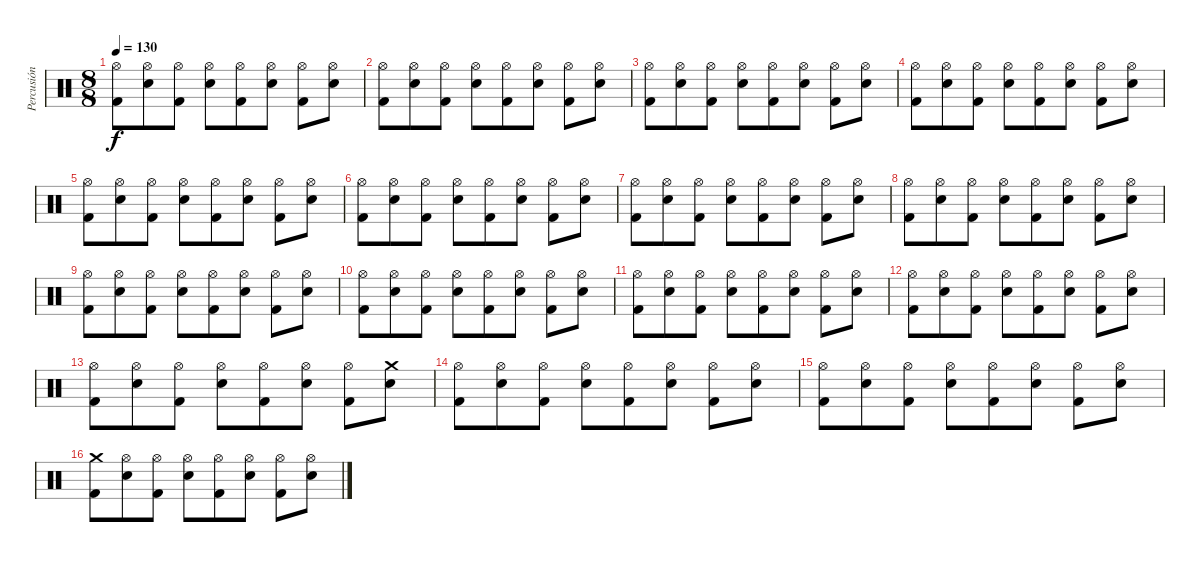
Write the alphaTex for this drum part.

\track ("Percusión" "Percusión") {instrument percussion}
\staff {score}
\articulation defaults
\ts (8 8)
\tempo 130
\clef neutral
\ks c
("Hi-Hat (open)" "Kick (hit) 2").8{dy f} ("Hi-Hat (open)" "Snare (hit) 2").8 ("Hi-Hat (open)" "Kick (hit) 2").8 ("Hi-Hat (open)" "Snare (hit) 2").8 ("Hi-Hat (open)" "Kick (hit) 2").8 ("Hi-Hat (open)" "Snare (hit) 2").8 ("Hi-Hat (open)" "Kick (hit) 2").8 ("Hi-Hat (open)" "Snare (hit) 2").8 |
("Hi-Hat (open)" "Kick (hit) 2").8 ("Hi-Hat (open)" "Snare (hit) 2").8 ("Hi-Hat (open)" "Kick (hit) 2").8 ("Hi-Hat (open)" "Snare (hit) 2").8 ("Hi-Hat (open)" "Kick (hit) 2").8 ("Hi-Hat (open)" "Snare (hit) 2").8 ("Hi-Hat (open)" "Kick (hit) 2").8 ("Hi-Hat (open)" "Snare (hit) 2").8 |
("Hi-Hat (open)" "Kick (hit) 2").8 ("Hi-Hat (open)" "Snare (hit) 2").8 ("Hi-Hat (open)" "Kick (hit) 2").8 ("Hi-Hat (open)" "Snare (hit) 2").8 ("Hi-Hat (open)" "Kick (hit) 2").8 ("Hi-Hat (open)" "Snare (hit) 2").8 ("Hi-Hat (open)" "Kick (hit) 2").8 ("Hi-Hat (open)" "Snare (hit) 2").8 |
("Hi-Hat (open)" "Kick (hit) 2").8 ("Hi-Hat (open)" "Snare (hit) 2").8 ("Hi-Hat (open)" "Kick (hit) 2").8 ("Hi-Hat (open)" "Snare (hit) 2").8 ("Hi-Hat (open)" "Kick (hit) 2").8 ("Hi-Hat (open)" "Snare (hit) 2").8 ("Hi-Hat (open)" "Kick (hit) 2").8 ("Hi-Hat (open)" "Snare (hit) 2").8 |
("Hi-Hat (open)" "Kick (hit) 2").8 ("Hi-Hat (open)" "Snare (hit) 2").8 ("Hi-Hat (open)" "Kick (hit) 2").8 ("Hi-Hat (open)" "Snare (hit) 2").8 ("Hi-Hat (open)" "Kick (hit) 2").8 ("Hi-Hat (open)" "Snare (hit) 2").8 ("Hi-Hat (open)" "Kick (hit) 2").8 ("Hi-Hat (open)" "Snare (hit) 2").8 |
("Hi-Hat (open)" "Kick (hit) 2").8 ("Hi-Hat (open)" "Snare (hit) 2").8 ("Hi-Hat (open)" "Kick (hit) 2").8 ("Hi-Hat (open)" "Snare (hit) 2").8 ("Hi-Hat (open)" "Kick (hit) 2").8 ("Hi-Hat (open)" "Snare (hit) 2").8 ("Hi-Hat (open)" "Kick (hit) 2").8 ("Hi-Hat (open)" "Snare (hit) 2").8 |
("Hi-Hat (open)" "Kick (hit) 2").8 ("Hi-Hat (open)" "Snare (hit) 2").8 ("Hi-Hat (open)" "Kick (hit) 2").8 ("Hi-Hat (open)" "Snare (hit) 2").8 ("Hi-Hat (open)" "Kick (hit) 2").8 ("Hi-Hat (open)" "Snare (hit) 2").8 ("Hi-Hat (open)" "Kick (hit) 2").8 ("Hi-Hat (open)" "Snare (hit) 2").8 |
("Hi-Hat (open)" "Kick (hit) 2").8 ("Hi-Hat (open)" "Snare (hit) 2").8 ("Hi-Hat (open)" "Kick (hit) 2").8 ("Hi-Hat (open)" "Snare (hit) 2").8 ("Hi-Hat (open)" "Kick (hit) 2").8 ("Hi-Hat (open)" "Snare (hit) 2").8 ("Hi-Hat (open)" "Kick (hit) 2").8 ("Hi-Hat (open)" "Snare (hit) 2").8 |
("Hi-Hat (open)" "Kick (hit) 2").8 ("Hi-Hat (open)" "Snare (hit) 2").8 ("Hi-Hat (open)" "Kick (hit) 2").8 ("Hi-Hat (open)" "Snare (hit) 2").8 ("Hi-Hat (open)" "Kick (hit) 2").8 ("Hi-Hat (open)" "Snare (hit) 2").8 ("Hi-Hat (open)" "Kick (hit) 2").8 ("Hi-Hat (open)" "Snare (hit) 2").8 |
("Hi-Hat (open)" "Kick (hit) 2").8 ("Hi-Hat (open)" "Snare (hit) 2").8 ("Hi-Hat (open)" "Kick (hit) 2").8 ("Hi-Hat (open)" "Snare (hit) 2").8 ("Hi-Hat (open)" "Kick (hit) 2").8 ("Hi-Hat (open)" "Snare (hit) 2").8 ("Hi-Hat (open)" "Kick (hit) 2").8 ("Hi-Hat (open)" "Snare (hit) 2").8 |
("Hi-Hat (open)" "Kick (hit) 2").8 ("Hi-Hat (open)" "Snare (hit) 2").8 ("Hi-Hat (open)" "Kick (hit) 2").8 ("Hi-Hat (open)" "Snare (hit) 2").8 ("Hi-Hat (open)" "Kick (hit) 2").8 ("Hi-Hat (open)" "Snare (hit) 2").8 ("Hi-Hat (open)" "Kick (hit) 2").8 ("Hi-Hat (open)" "Snare (hit) 2").8 |
("Hi-Hat (open)" "Kick (hit) 2").8 ("Hi-Hat (open)" "Snare (hit) 2").8 ("Hi-Hat (open)" "Kick (hit) 2").8 ("Hi-Hat (open)" "Snare (hit) 2").8 ("Hi-Hat (open)" "Kick (hit) 2").8 ("Hi-Hat (open)" "Snare (hit) 2").8 ("Hi-Hat (open)" "Kick (hit) 2").8 ("Hi-Hat (open)" "Snare (hit) 2").8 |
("Hi-Hat (open)" "Kick (hit) 2").8 ("Hi-Hat (open)" "Snare (hit) 2").8 ("Hi-Hat (open)" "Kick (hit) 2").8 ("Hi-Hat (open)" "Snare (hit) 2").8 ("Hi-Hat (open)" "Kick (hit) 2").8 ("Hi-Hat (open)" "Snare (hit) 2").8 ("Hi-Hat (open)" "Kick (hit) 2").8 ("Crash medium (hit)" "Snare (hit) 2").8 |
("Hi-Hat (open)" "Kick (hit) 2").8 ("Hi-Hat (open)" "Snare (hit) 2").8 ("Hi-Hat (open)" "Kick (hit) 2").8 ("Hi-Hat (open)" "Snare (hit) 2").8 ("Hi-Hat (open)" "Kick (hit) 2").8 ("Hi-Hat (open)" "Snare (hit) 2").8 ("Hi-Hat (open)" "Kick (hit) 2").8 ("Hi-Hat (open)" "Snare (hit) 2").8 |
("Hi-Hat (open)" "Kick (hit) 2").8 ("Hi-Hat (open)" "Snare (hit) 2").8 ("Hi-Hat (open)" "Kick (hit) 2").8 ("Hi-Hat (open)" "Snare (hit) 2").8 ("Hi-Hat (open)" "Kick (hit) 2").8 ("Hi-Hat (open)" "Snare (hit) 2").8 ("Hi-Hat (open)" "Kick (hit) 2").8 ("Hi-Hat (open)" "Snare (hit) 2").8 |
("Crash medium (hit)" "Kick (hit) 2").8 ("Hi-Hat (open)" "Snare (hit) 2").8 ("Hi-Hat (open)" "Kick (hit) 2").8 ("Hi-Hat (open)" "Snare (hit) 2").8 ("Hi-Hat (open)" "Kick (hit) 2").8 ("Hi-Hat (open)" "Snare (hit) 2").8 ("Hi-Hat (open)" "Kick (hit) 2").8 ("Hi-Hat (open)" "Snare (hit) 2").8
